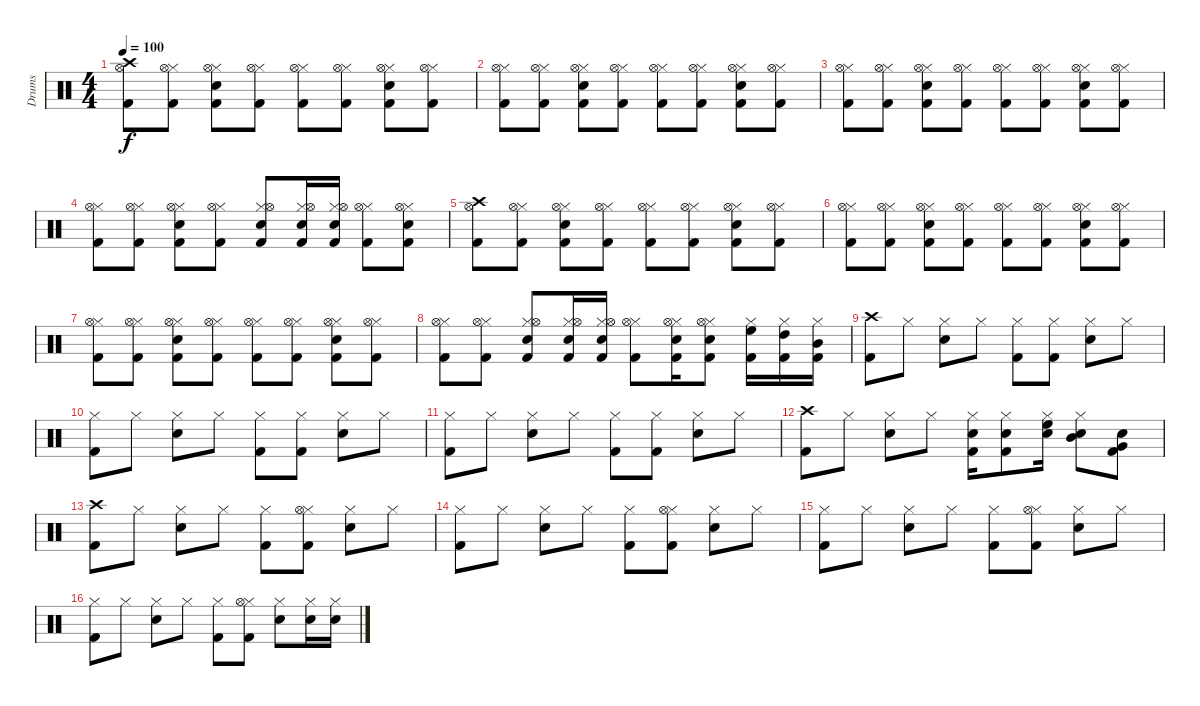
\track ("Drums" "Drums") {instrument percussion}
\staff {score}
\articulation defaults
\ts (4 4)
\tempo 100
\clef neutral
\ks c
("Crash high (hit)" "Kick (hit) 2" "Hi-Hat (open)").8{dy f} ("Hi-Hat (closed)" "Kick (hit) 2" "Hi-Hat (open)").8 ("Hi-Hat (closed)" "Kick (hit) 2" "Electric Snare (hit)" "Hi-Hat (open)").8 ("Hi-Hat (closed)" "Kick (hit) 2" "Hi-Hat (open)").8 ("Hi-Hat (closed)" "Kick (hit) 2" "Hi-Hat (open)").8 ("Hi-Hat (closed)" "Kick (hit) 2" "Hi-Hat (open)").8 ("Hi-Hat (closed)" "Kick (hit) 2" "Electric Snare (hit)" "Hi-Hat (open)").8 ("Hi-Hat (closed)" "Kick (hit) 2" "Hi-Hat (open)").8 |
("Hi-Hat (closed)" "Kick (hit) 2" "Hi-Hat (open)").8 ("Hi-Hat (closed)" "Kick (hit) 2" "Hi-Hat (open)").8 ("Hi-Hat (closed)" "Kick (hit) 2" "Electric Snare (hit)" "Hi-Hat (open)").8 ("Hi-Hat (closed)" "Kick (hit) 2" "Hi-Hat (open)").8 ("Hi-Hat (closed)" "Kick (hit) 2" "Hi-Hat (open)").8 ("Hi-Hat (closed)" "Kick (hit) 2" "Hi-Hat (open)").8 ("Hi-Hat (closed)" "Kick (hit) 2" "Electric Snare (hit)" "Hi-Hat (open)").8 ("Hi-Hat (closed)" "Kick (hit) 2" "Hi-Hat (open)").8 |
("Hi-Hat (closed)" "Kick (hit) 2" "Hi-Hat (open)").8 ("Hi-Hat (closed)" "Kick (hit) 2" "Hi-Hat (open)").8 ("Hi-Hat (closed)" "Kick (hit) 2" "Electric Snare (hit)" "Hi-Hat (open)").8 ("Hi-Hat (closed)" "Kick (hit) 2" "Hi-Hat (open)").8 ("Hi-Hat (closed)" "Kick (hit) 2" "Hi-Hat (open)").8 ("Hi-Hat (closed)" "Kick (hit) 2" "Hi-Hat (open)").8 ("Hi-Hat (closed)" "Kick (hit) 2" "Electric Snare (hit)" "Hi-Hat (open)").8 ("Hi-Hat (closed)" "Kick (hit) 2" "Hi-Hat (open)").8 |
("Hi-Hat (closed)" "Kick (hit) 2" "Hi-Hat (open)").8 ("Hi-Hat (closed)" "Kick (hit) 2" "Hi-Hat (open)").8 ("Hi-Hat (closed)" "Kick (hit) 2" "Electric Snare (hit)" "Hi-Hat (open)").8 ("Hi-Hat (closed)" "Kick (hit) 2" "Hi-Hat (open)").8 ("Hi-Hat (closed)" "Kick (hit) 2" "Electric Snare (hit)" "Hi-Hat (open)").8 ("Hi-Hat (closed)" "Kick (hit) 2" "Electric Snare (hit)" "Hi-Hat (open)").16 ("Hi-Hat (closed)" "Kick (hit) 2" "Electric Snare (hit)" "Hi-Hat (open)").16 ("Hi-Hat (closed)" "Kick (hit) 2" "Hi-Hat (open)").8 ("Hi-Hat (closed)" "Kick (hit) 2" "Electric Snare (hit)" "Hi-Hat (open)").8 |
("Crash high (hit)" "Kick (hit) 2" "Hi-Hat (open)").8 ("Hi-Hat (closed)" "Kick (hit) 2" "Hi-Hat (open)").8 ("Hi-Hat (closed)" "Kick (hit) 2" "Electric Snare (hit)" "Hi-Hat (open)").8 ("Hi-Hat (closed)" "Kick (hit) 2" "Hi-Hat (open)").8 ("Hi-Hat (closed)" "Kick (hit) 2" "Hi-Hat (open)").8 ("Hi-Hat (closed)" "Kick (hit) 2" "Hi-Hat (open)").8 ("Hi-Hat (closed)" "Kick (hit) 2" "Electric Snare (hit)" "Hi-Hat (open)").8 ("Hi-Hat (closed)" "Kick (hit) 2" "Hi-Hat (open)").8 |
("Hi-Hat (closed)" "Kick (hit) 2" "Hi-Hat (open)").8 ("Hi-Hat (closed)" "Kick (hit) 2" "Hi-Hat (open)").8 ("Hi-Hat (closed)" "Kick (hit) 2" "Electric Snare (hit)" "Hi-Hat (open)").8 ("Hi-Hat (closed)" "Kick (hit) 2" "Hi-Hat (open)").8 ("Hi-Hat (closed)" "Kick (hit) 2" "Hi-Hat (open)").8 ("Hi-Hat (closed)" "Kick (hit) 2" "Hi-Hat (open)").8 ("Hi-Hat (closed)" "Kick (hit) 2" "Electric Snare (hit)" "Hi-Hat (open)").8 ("Hi-Hat (closed)" "Kick (hit) 2" "Hi-Hat (open)").8 |
("Hi-Hat (closed)" "Kick (hit) 2" "Hi-Hat (open)").8 ("Hi-Hat (closed)" "Kick (hit) 2" "Hi-Hat (open)").8 ("Hi-Hat (closed)" "Kick (hit) 2" "Electric Snare (hit)" "Hi-Hat (open)").8 ("Hi-Hat (closed)" "Kick (hit) 2" "Hi-Hat (open)").8 ("Hi-Hat (closed)" "Kick (hit) 2" "Hi-Hat (open)").8 ("Hi-Hat (closed)" "Kick (hit) 2" "Hi-Hat (open)").8 ("Hi-Hat (closed)" "Kick (hit) 2" "Electric Snare (hit)" "Hi-Hat (open)").8 ("Hi-Hat (closed)" "Kick (hit) 2" "Hi-Hat (open)").8 |
("Hi-Hat (closed)" "Kick (hit) 2" "Hi-Hat (open)").8 ("Hi-Hat (closed)" "Kick (hit) 2" "Hi-Hat (open)").8 ("Hi-Hat (closed)" "Kick (hit) 2" "Electric Snare (hit)" "Hi-Hat (open)").8 ("Hi-Hat (closed)" "Kick (hit) 2" "Electric Snare (hit)" "Hi-Hat (open)").16 ("Hi-Hat (closed)" "Kick (hit) 2" "Electric Snare (hit)" "Hi-Hat (open)").16 ("Hi-Hat (closed)" "Kick (hit) 2" "Hi-Hat (open)").8 ("Hi-Hat (closed)" "Kick (hit) 2" "Electric Snare (hit)" "Hi-Hat (open)").16 ("Hi-Hat (closed)" "Kick (hit) 2" "Electric Snare (hit)" "Hi-Hat (open)").8 ("Hi-Hat (closed)" "Kick (hit) 2" "High Floor Tom (hit)").16 ("Hi-Hat (closed)" "Kick (hit) 2" "High Tom (hit)").16 ("Hi-Hat (closed)" "Kick (hit) 2" "Mid Tom (hit)").16 |
("Crash high (hit)" "Kick (hit) 2").8 "Hi-Hat (closed)".8 ("Hi-Hat (closed)" "Electric Snare (hit)").8 "Hi-Hat (closed)".8 ("Hi-Hat (closed)" "Kick (hit) 2").8 ("Hi-Hat (closed)" "Kick (hit) 2").8 ("Hi-Hat (closed)" "Electric Snare (hit)").8 "Hi-Hat (closed)".8 |
("Hi-Hat (closed)" "Kick (hit) 2").8 "Hi-Hat (closed)".8 ("Hi-Hat (closed)" "Electric Snare (hit)").8 "Hi-Hat (closed)".8 ("Hi-Hat (closed)" "Kick (hit) 2").8 ("Hi-Hat (closed)" "Kick (hit) 2").8 ("Hi-Hat (closed)" "Electric Snare (hit)").8 "Hi-Hat (closed)".8 |
("Hi-Hat (closed)" "Kick (hit) 2").8 "Hi-Hat (closed)".8 ("Hi-Hat (closed)" "Electric Snare (hit)").8 "Hi-Hat (closed)".8 ("Hi-Hat (closed)" "Kick (hit) 2").8 ("Hi-Hat (closed)" "Kick (hit) 2").8 ("Hi-Hat (closed)" "Electric Snare (hit)").8 "Hi-Hat (closed)".8 |
("Crash high (hit)" "Kick (hit) 2").8 "Hi-Hat (closed)".8 ("Hi-Hat (closed)" "Electric Snare (hit)").8 "Hi-Hat (closed)".8 ("Hi-Hat (closed)" "Kick (hit) 2" "Electric Snare (hit)").16 ("Hi-Hat (closed)" "Kick (hit) 2" "Electric Snare (hit)").8 ("Hi-Hat (closed)" "Electric Snare (hit)" "High Floor Tom (hit)").16 ("Hi-Hat (closed)" "Electric Snare (hit)" "Mid Tom (hit)").8 ("Kick (hit) 2" "Electric Snare (hit)" "Very Low Tom (hit)").8 |
("Crash high (hit)" "Kick (hit) 2").8 "Hi-Hat (closed)".8 ("Hi-Hat (closed)" "Electric Snare (hit)").8 "Hi-Hat (closed)".8 ("Hi-Hat (closed)" "Kick (hit) 2").8 ("Hi-Hat (closed)" "Kick (hit) 2" "Hi-Hat (open)").8 ("Hi-Hat (closed)" "Electric Snare (hit)").8 "Hi-Hat (closed)".8 |
("Hi-Hat (closed)" "Kick (hit) 2").8 "Hi-Hat (closed)".8 ("Hi-Hat (closed)" "Electric Snare (hit)").8 "Hi-Hat (closed)".8 ("Hi-Hat (closed)" "Kick (hit) 2").8 ("Hi-Hat (closed)" "Kick (hit) 2" "Hi-Hat (open)").8 ("Hi-Hat (closed)" "Electric Snare (hit)").8 "Hi-Hat (closed)".8 |
("Hi-Hat (closed)" "Kick (hit) 2").8 "Hi-Hat (closed)".8 ("Hi-Hat (closed)" "Electric Snare (hit)").8 "Hi-Hat (closed)".8 ("Hi-Hat (closed)" "Kick (hit) 2").8 ("Hi-Hat (closed)" "Kick (hit) 2" "Hi-Hat (open)").8 ("Hi-Hat (closed)" "Electric Snare (hit)").8 "Hi-Hat (closed)".8 |
("Hi-Hat (closed)" "Kick (hit) 2").8 "Hi-Hat (closed)".8 ("Hi-Hat (closed)" "Electric Snare (hit)").8 "Hi-Hat (closed)".8 ("Hi-Hat (closed)" "Kick (hit) 2").8 ("Hi-Hat (closed)" "Kick (hit) 2" "Hi-Hat (open)").8 ("Hi-Hat (closed)" "Electric Snare (hit)").8 ("Hi-Hat (closed)" "Electric Snare (hit)").16 ("Hi-Hat (closed)" "Electric Snare (hit)").16
